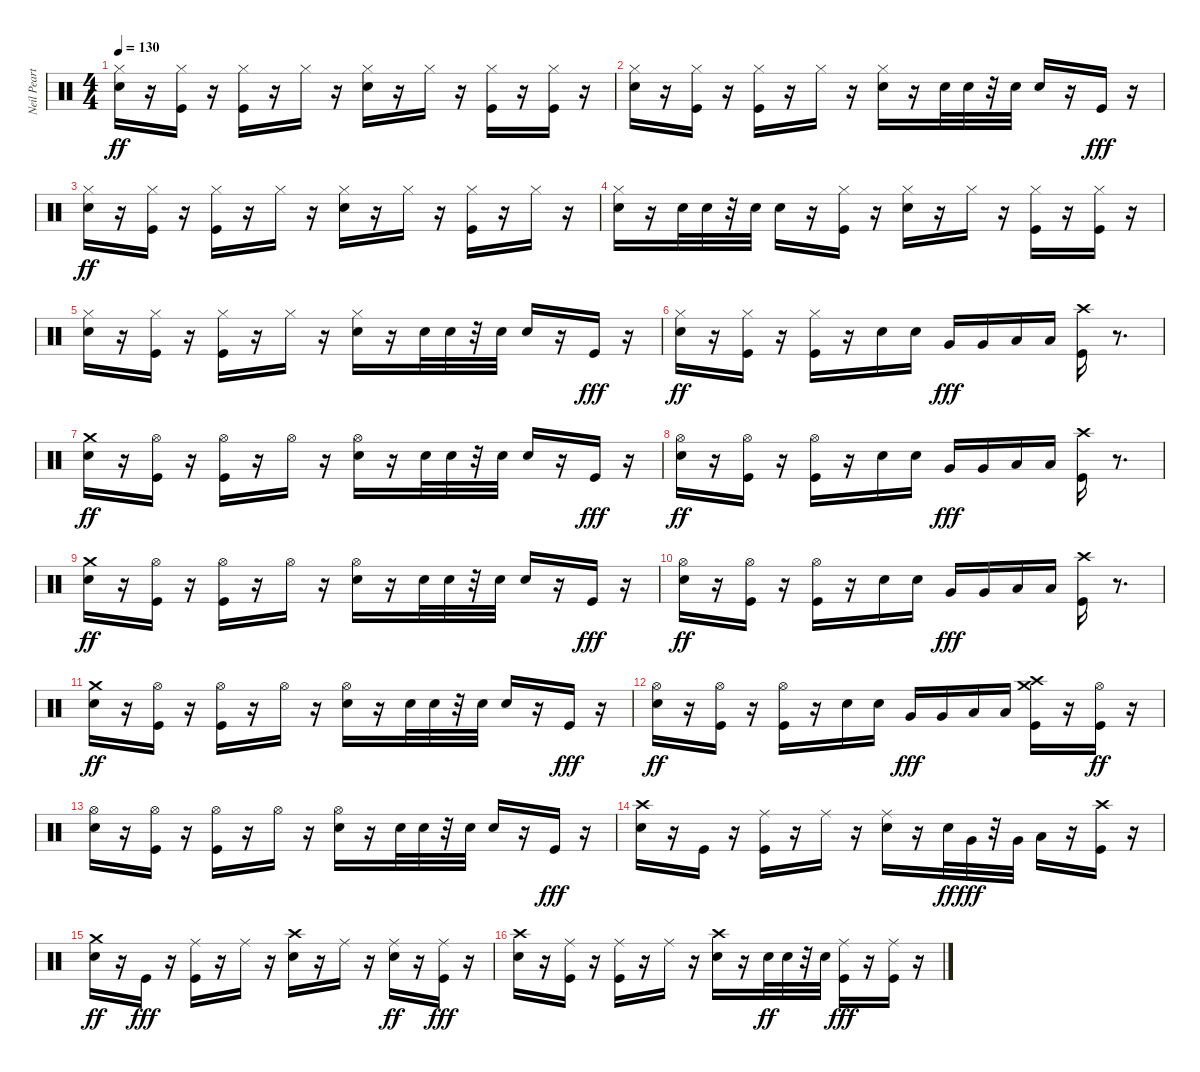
\track ("Neil Peart" "Neil Peart") {instrument percussion}
\staff {score}
\articulation defaults
\ts (4 4)
\tempo 130
\clef neutral
\ks c
("Snare (hit) 2" "Hi-Hat (closed)").16{dy ff} r.16 ("Kick (hit)" "Hi-Hat (closed)").16 r.16 ("Kick (hit)" "Hi-Hat (closed)").16 r.16 "Hi-Hat (closed)".16 r.16 ("Snare (hit) 2" "Hi-Hat (closed)").16 r.16 "Hi-Hat (closed)".16 r.16 ("Kick (hit)" "Hi-Hat (closed)").16 r.16 ("Kick (hit)" "Hi-Hat (closed)").16 r.16 |
("Snare (hit) 2" "Hi-Hat (closed)").16 r.16 ("Kick (hit)" "Hi-Hat (closed)").16 r.16 ("Kick (hit)" "Hi-Hat (closed)").16 r.16 "Hi-Hat (closed)".16 r.16 ("Snare (hit) 2" "Hi-Hat (closed)").16 r.16 "Snare (hit) 2".32 "Snare (hit) 2".32 r.32 "Snare (hit) 2".32 "Snare (hit) 2".16 r.16 "Kick (hit)".16{dy fff} r.16 |
("Snare (hit) 2" "Hi-Hat (closed)").16{dy ff} r.16 ("Kick (hit)" "Hi-Hat (closed)").16 r.16 ("Kick (hit)" "Hi-Hat (closed)").16 r.16 "Hi-Hat (closed)".16 r.16 ("Snare (hit) 2" "Hi-Hat (closed)").16 r.16 "Hi-Hat (closed)".16 r.16 ("Kick (hit)" "Hi-Hat (closed)").16 r.16 "Hi-Hat (closed)".16 r.16 |
("Snare (hit) 2" "Hi-Hat (closed)").16 r.16 "Snare (hit) 2".32 "Snare (hit) 2".32 r.32 "Snare (hit) 2".32 "Snare (hit) 2".16 r.16 ("Kick (hit)" "Hi-Hat (closed)").16 r.16 ("Snare (hit) 2" "Hi-Hat (closed)").16 r.16 "Hi-Hat (closed)".16 r.16 ("Kick (hit)" "Hi-Hat (closed)").16 r.16 ("Kick (hit)" "Hi-Hat (closed)").16 r.16 |
("Snare (hit) 2" "Hi-Hat (closed)").16 r.16 ("Kick (hit)" "Hi-Hat (closed)").16 r.16 ("Kick (hit)" "Hi-Hat (closed)").16 r.16 "Hi-Hat (closed)".16 r.16 ("Snare (hit) 2" "Hi-Hat (closed)").16 r.16 "Snare (hit) 2".32 "Snare (hit) 2".32 r.32 "Snare (hit) 2".32 "Snare (hit) 2".16 r.16 "Kick (hit)".16{dy fff} r.16 |
("Snare (hit) 2" "Hi-Hat (closed)").16{dy ff} r.16 ("Kick (hit)" "Hi-Hat (closed)").16 r.16 ("Kick (hit)" "Hi-Hat (closed)").16 r.16 "Snare (hit) 2".16 "Snare (hit) 2".16 "Very Low Tom (hit)".16{dy fff} "Very Low Tom (hit)".16 "Low Floor Tom (hit)".16 "Low Floor Tom (hit)".16 ("Kick (hit)" "Crash high (hit)").16 r.8{d} |
("Crash medium (hit)" "Snare (hit) 2").16{dy ff} r.16 ("Kick (hit)" "Hi-Hat (open)").16 r.16 ("Kick (hit)" "Hi-Hat (open)").16 r.16 "Hi-Hat (open)".16 r.16 ("Snare (hit) 2" "Hi-Hat (open)").16 r.16 "Snare (hit) 2".32 "Snare (hit) 2".32 r.32 "Snare (hit) 2".32 "Snare (hit) 2".16 r.16 "Kick (hit)".16{dy fff} r.16 |
("Snare (hit) 2" "Hi-Hat (open)").16{dy ff} r.16 ("Kick (hit)" "Hi-Hat (open)").16 r.16 ("Kick (hit)" "Hi-Hat (open)").16 r.16 "Snare (hit) 2".16 "Snare (hit) 2".16 "Very Low Tom (hit)".16{dy fff} "Very Low Tom (hit)".16 "Low Floor Tom (hit)".16 "Low Floor Tom (hit)".16 ("Kick (hit)" "Crash high (hit)").16 r.8{d} |
("Crash medium (hit)" "Snare (hit) 2").16{dy ff} r.16 ("Kick (hit)" "Hi-Hat (open)").16 r.16 ("Kick (hit)" "Hi-Hat (open)").16 r.16 "Hi-Hat (open)".16 r.16 ("Snare (hit) 2" "Hi-Hat (open)").16 r.16 "Snare (hit) 2".32 "Snare (hit) 2".32 r.32 "Snare (hit) 2".32 "Snare (hit) 2".16 r.16 "Kick (hit)".16{dy fff} r.16 |
("Snare (hit) 2" "Hi-Hat (open)").16{dy ff} r.16 ("Kick (hit)" "Hi-Hat (open)").16 r.16 ("Kick (hit)" "Hi-Hat (open)").16 r.16 "Snare (hit) 2".16 "Snare (hit) 2".16 "Very Low Tom (hit)".16{dy fff} "Very Low Tom (hit)".16 "Low Floor Tom (hit)".16 "Low Floor Tom (hit)".16 ("Kick (hit)" "Crash high (hit)").16 r.8{d} |
("Crash medium (hit)" "Snare (hit) 2").16{dy ff} r.16 ("Kick (hit)" "Hi-Hat (open)").16 r.16 ("Kick (hit)" "Hi-Hat (open)").16 r.16 "Hi-Hat (open)".16 r.16 ("Snare (hit) 2" "Hi-Hat (open)").16 r.16 "Snare (hit) 2".32 "Snare (hit) 2".32 r.32 "Snare (hit) 2".32 "Snare (hit) 2".16 r.16 "Kick (hit)".16{dy fff} r.16 |
("Snare (hit) 2" "Hi-Hat (open)").16{dy ff} r.16 ("Kick (hit)" "Hi-Hat (open)").16 r.16 ("Kick (hit)" "Hi-Hat (open)").16 r.16 "Snare (hit) 2".16 "Snare (hit) 2".16 "Very Low Tom (hit)".16{dy fff} "Very Low Tom (hit)".16 "Low Floor Tom (hit)".16 "Low Floor Tom (hit)".16 ("Crash medium (hit)" "Kick (hit)" "Crash high (hit)").16 r.16 ("Kick (hit)" "Hi-Hat (open)").16{dy ff} r.16 |
("Snare (hit) 2" "Hi-Hat (open)").16 r.16 ("Kick (hit)" "Hi-Hat (open)").16 r.16 ("Kick (hit)" "Hi-Hat (open)").16 r.16 "Hi-Hat (open)".16 r.16 ("Snare (hit) 2" "Hi-Hat (open)").16 r.16 "Snare (hit) 2".32 "Snare (hit) 2".32 r.32 "Snare (hit) 2".32 "Snare (hit) 2".16 r.16 "Kick (hit)".16{dy fff} r.16 |
("Snare (hit) 2" "Crash high (hit)").16 r.16 "Kick (hit)".16 r.16 ("Kick (hit)" "Ride (middle)").16 r.16 "Ride (middle)".16 r.16 ("Snare (hit) 2" "Ride (middle)").16 r.16 "Snare (hit) 2".32{dy ff} "Very Low Tom (hit)".32{dy fff} r.32 "Very Low Tom (hit)".32 "Low Floor Tom (hit)".16 r.16 ("Kick (hit)" "Crash high (hit)").16 r.16 |
("Crash medium (hit)" "Snare (hit) 2").16{dy ff} r.16 "Kick (hit)".16{dy fff} r.16 ("Kick (hit)" "Ride (middle)").16 r.16 "Ride (middle)".16 r.16 ("Snare (hit) 2" "Crash high (hit)").16 r.16 "Ride (middle)".16 r.16 ("Ride (middle)" "Snare (hit) 2").16{dy ff} r.16 ("Kick (hit)" "Ride (middle)").16{dy fff} r.16 |
("Snare (hit) 2" "Crash high (hit)").16 r.16 ("Kick (hit)" "Ride (middle)").16 r.16 ("Ride (middle)" "Kick (hit)").16 r.16 "Ride (middle)".16 r.16 ("Snare (hit) 2" "Crash high (hit)").16 r.16 "Snare (hit) 2".32{dy ff} "Snare (hit) 2".32 r.32 "Snare (hit) 2".32 ("Kick (hit)" "Ride (middle)").16{dy fff} r.16 ("Kick (hit)" "Ride (middle)").16 r.16
